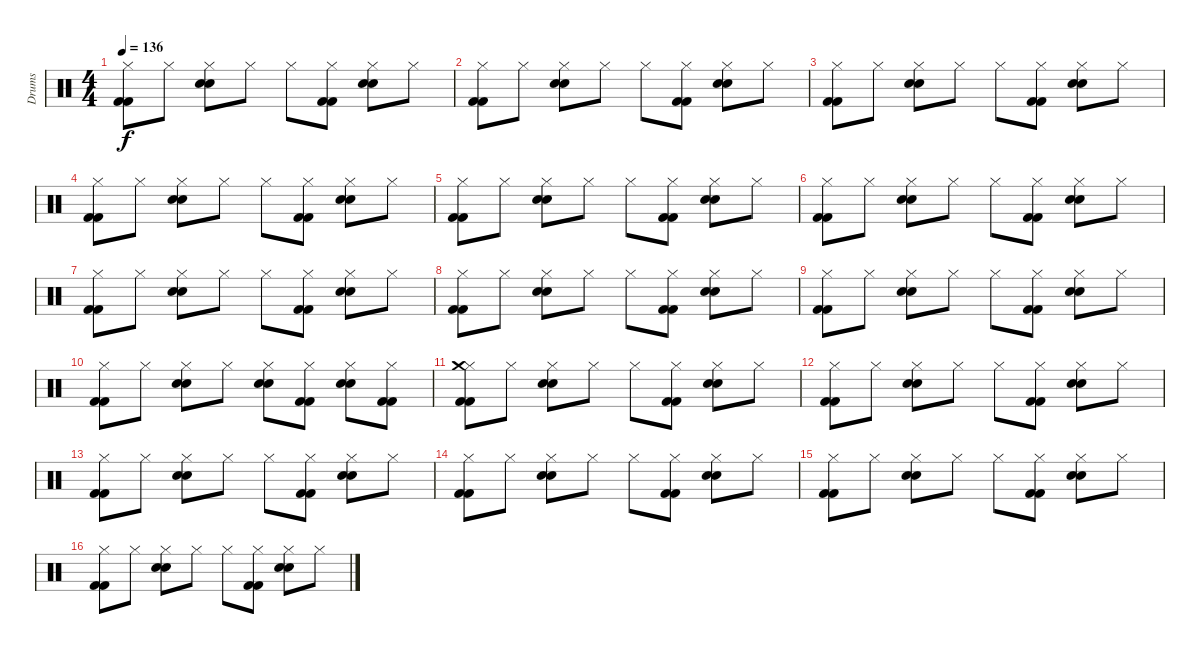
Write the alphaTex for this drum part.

\track ("Drums" "Drums") {instrument percussion}
\staff {score}
\articulation defaults
\ts (4 4)
\tempo 136
\clef neutral
\ks c
("Kick (hit) 2" "Kick (hit) 2" "Hi-Hat (closed)").8{dy f} "Hi-Hat (closed)".8 ("Electric Snare (hit)" "Electric Snare (hit)" "Hi-Hat (closed)").8 "Hi-Hat (closed)".8 "Hi-Hat (closed)".8 ("Kick (hit) 2" "Kick (hit) 2" "Hi-Hat (closed)").8 ("Electric Snare (hit)" "Electric Snare (hit)" "Hi-Hat (closed)").8 "Hi-Hat (closed)".8 |
("Kick (hit) 2" "Kick (hit) 2" "Hi-Hat (closed)").8 "Hi-Hat (closed)".8 ("Electric Snare (hit)" "Electric Snare (hit)" "Hi-Hat (closed)").8 "Hi-Hat (closed)".8 "Hi-Hat (closed)".8 ("Kick (hit) 2" "Kick (hit) 2" "Hi-Hat (closed)").8 ("Electric Snare (hit)" "Electric Snare (hit)" "Hi-Hat (closed)").8 "Hi-Hat (closed)".8 |
("Kick (hit) 2" "Kick (hit) 2" "Hi-Hat (closed)").8 "Hi-Hat (closed)".8 ("Electric Snare (hit)" "Electric Snare (hit)" "Hi-Hat (closed)").8 "Hi-Hat (closed)".8 "Hi-Hat (closed)".8 ("Kick (hit) 2" "Kick (hit) 2" "Hi-Hat (closed)").8 ("Electric Snare (hit)" "Electric Snare (hit)" "Hi-Hat (closed)").8 "Hi-Hat (closed)".8 |
("Kick (hit) 2" "Kick (hit) 2" "Hi-Hat (closed)").8 "Hi-Hat (closed)".8 ("Electric Snare (hit)" "Electric Snare (hit)" "Hi-Hat (closed)").8 "Hi-Hat (closed)".8 "Hi-Hat (closed)".8 ("Kick (hit) 2" "Kick (hit) 2" "Hi-Hat (closed)").8 ("Electric Snare (hit)" "Electric Snare (hit)" "Hi-Hat (closed)").8 "Hi-Hat (closed)".8 |
("Kick (hit) 2" "Kick (hit) 2" "Hi-Hat (closed)").8 "Hi-Hat (closed)".8 ("Electric Snare (hit)" "Electric Snare (hit)" "Hi-Hat (closed)").8 "Hi-Hat (closed)".8 "Hi-Hat (closed)".8 ("Kick (hit) 2" "Kick (hit) 2" "Hi-Hat (closed)").8 ("Electric Snare (hit)" "Electric Snare (hit)" "Hi-Hat (closed)").8 "Hi-Hat (closed)".8 |
("Kick (hit) 2" "Kick (hit) 2" "Hi-Hat (closed)").8 "Hi-Hat (closed)".8 ("Electric Snare (hit)" "Electric Snare (hit)" "Hi-Hat (closed)").8 "Hi-Hat (closed)".8 "Hi-Hat (closed)".8 ("Kick (hit) 2" "Kick (hit) 2" "Hi-Hat (closed)").8 ("Electric Snare (hit)" "Electric Snare (hit)" "Hi-Hat (closed)").8 "Hi-Hat (closed)".8 |
("Kick (hit) 2" "Kick (hit) 2" "Hi-Hat (closed)").8 "Hi-Hat (closed)".8 ("Electric Snare (hit)" "Electric Snare (hit)" "Hi-Hat (closed)").8 "Hi-Hat (closed)".8 "Hi-Hat (closed)".8 ("Kick (hit) 2" "Kick (hit) 2" "Hi-Hat (closed)").8 ("Electric Snare (hit)" "Electric Snare (hit)" "Hi-Hat (closed)").8 "Hi-Hat (closed)".8 |
("Kick (hit) 2" "Kick (hit) 2" "Hi-Hat (closed)").8 "Hi-Hat (closed)".8 ("Electric Snare (hit)" "Electric Snare (hit)" "Hi-Hat (closed)").8 "Hi-Hat (closed)".8 "Hi-Hat (closed)".8 ("Kick (hit) 2" "Kick (hit) 2" "Hi-Hat (closed)").8 ("Electric Snare (hit)" "Electric Snare (hit)" "Hi-Hat (closed)").8 "Hi-Hat (closed)".8 |
("Kick (hit) 2" "Kick (hit) 2" "Hi-Hat (closed)").8 "Hi-Hat (closed)".8 ("Electric Snare (hit)" "Electric Snare (hit)" "Hi-Hat (closed)").8 "Hi-Hat (closed)".8 "Hi-Hat (closed)".8 ("Kick (hit) 2" "Kick (hit) 2" "Hi-Hat (closed)").8 ("Electric Snare (hit)" "Electric Snare (hit)" "Hi-Hat (closed)").8 "Hi-Hat (closed)".8 |
("Kick (hit) 2" "Kick (hit) 2" "Hi-Hat (closed)").8 "Hi-Hat (closed)".8 ("Electric Snare (hit)" "Electric Snare (hit)" "Hi-Hat (closed)").8 "Hi-Hat (closed)".8 ("Electric Snare (hit)" "Electric Snare (hit)" "Hi-Hat (closed)").8 ("Kick (hit) 2" "Kick (hit) 2" "Hi-Hat (closed)").8 ("Electric Snare (hit)" "Electric Snare (hit)" "Hi-Hat (closed)").8 ("Kick (hit) 2" "Kick (hit) 2" "Hi-Hat (closed)").8 |
("Kick (hit) 2" "Kick (hit) 2" "Hi-Hat (closed)" "Crash medium (hit)").8 "Hi-Hat (closed)".8 ("Electric Snare (hit)" "Electric Snare (hit)" "Hi-Hat (closed)").8 "Hi-Hat (closed)".8 "Hi-Hat (closed)".8 ("Kick (hit) 2" "Kick (hit) 2" "Hi-Hat (closed)").8 ("Electric Snare (hit)" "Electric Snare (hit)" "Hi-Hat (closed)").8 "Hi-Hat (closed)".8 |
("Kick (hit) 2" "Kick (hit) 2" "Hi-Hat (closed)").8 "Hi-Hat (closed)".8 ("Electric Snare (hit)" "Electric Snare (hit)" "Hi-Hat (closed)").8 "Hi-Hat (closed)".8 "Hi-Hat (closed)".8 ("Kick (hit) 2" "Kick (hit) 2" "Hi-Hat (closed)").8 ("Electric Snare (hit)" "Electric Snare (hit)" "Hi-Hat (closed)").8 "Hi-Hat (closed)".8 |
("Kick (hit) 2" "Kick (hit) 2" "Hi-Hat (closed)").8 "Hi-Hat (closed)".8 ("Electric Snare (hit)" "Electric Snare (hit)" "Hi-Hat (closed)").8 "Hi-Hat (closed)".8 "Hi-Hat (closed)".8 ("Kick (hit) 2" "Kick (hit) 2" "Hi-Hat (closed)").8 ("Electric Snare (hit)" "Electric Snare (hit)" "Hi-Hat (closed)").8 "Hi-Hat (closed)".8 |
("Kick (hit) 2" "Kick (hit) 2" "Hi-Hat (closed)").8 "Hi-Hat (closed)".8 ("Electric Snare (hit)" "Electric Snare (hit)" "Hi-Hat (closed)").8 "Hi-Hat (closed)".8 "Hi-Hat (closed)".8 ("Kick (hit) 2" "Kick (hit) 2" "Hi-Hat (closed)").8 ("Electric Snare (hit)" "Electric Snare (hit)" "Hi-Hat (closed)").8 "Hi-Hat (closed)".8 |
("Kick (hit) 2" "Kick (hit) 2" "Hi-Hat (closed)").8 "Hi-Hat (closed)".8 ("Electric Snare (hit)" "Electric Snare (hit)" "Hi-Hat (closed)").8 "Hi-Hat (closed)".8 "Hi-Hat (closed)".8 ("Kick (hit) 2" "Kick (hit) 2" "Hi-Hat (closed)").8 ("Electric Snare (hit)" "Electric Snare (hit)" "Hi-Hat (closed)").8 "Hi-Hat (closed)".8 |
("Kick (hit) 2" "Kick (hit) 2" "Hi-Hat (closed)").8 "Hi-Hat (closed)".8 ("Electric Snare (hit)" "Electric Snare (hit)" "Hi-Hat (closed)").8 "Hi-Hat (closed)".8 "Hi-Hat (closed)".8 ("Kick (hit) 2" "Kick (hit) 2" "Hi-Hat (closed)").8 ("Electric Snare (hit)" "Electric Snare (hit)" "Hi-Hat (closed)").8 "Hi-Hat (closed)".8
